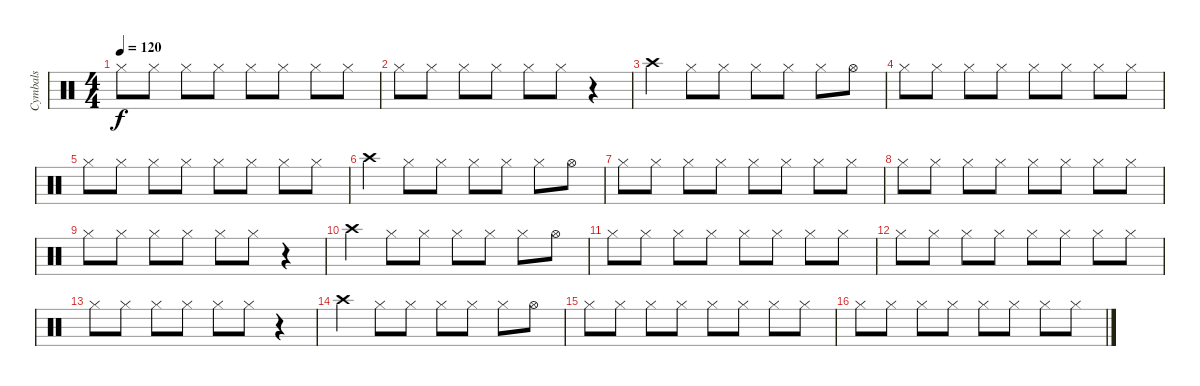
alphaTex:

\track ("Cymbals" "Cymbals") {instrument percussion}
\staff {score}
\articulation defaults
\ts (4 4)
\tempo 120
\clef neutral
\ks c "Hi-Hat (closed)".8{dy f} "Hi-Hat (closed)".8 "Hi-Hat (closed)".8 "Hi-Hat (closed)".8 "Hi-Hat (closed)".8 "Hi-Hat (closed)".8 "Hi-Hat (closed)".8 "Hi-Hat (closed)".8
|
"Hi-Hat (closed)".8 "Hi-Hat (closed)".8 "Hi-Hat (closed)".8 "Hi-Hat (closed)".8 "Hi-Hat (closed)".8 "Hi-Hat (closed)".8 r.4 |
"Crash high (hit)".4 "Hi-Hat (closed)".8 "Hi-Hat (closed)".8 "Hi-Hat (closed)".8 "Hi-Hat (closed)".8 "Hi-Hat (closed)".8 "Hi-Hat (open)".8 |
"Hi-Hat (closed)".8 "Hi-Hat (closed)".8 "Hi-Hat (closed)".8 "Hi-Hat (closed)".8 "Hi-Hat (closed)".8 "Hi-Hat (closed)".8 "Hi-Hat (closed)".8 "Hi-Hat (closed)".8 |
"Hi-Hat (closed)".8 "Hi-Hat (closed)".8 "Hi-Hat (closed)".8 "Hi-Hat (closed)".8 "Hi-Hat (closed)".8 "Hi-Hat (closed)".8 "Hi-Hat (closed)".8 "Hi-Hat (closed)".8 |
"Crash high (hit)".4 "Hi-Hat (closed)".8 "Hi-Hat (closed)".8 "Hi-Hat (closed)".8 "Hi-Hat (closed)".8 "Hi-Hat (closed)".8 "Hi-Hat (open)".8 |
"Hi-Hat (closed)".8 "Hi-Hat (closed)".8 "Hi-Hat (closed)".8 "Hi-Hat (closed)".8 "Hi-Hat (closed)".8 "Hi-Hat (closed)".8 "Hi-Hat (closed)".8 "Hi-Hat (closed)".8 |
"Hi-Hat (closed)".8 "Hi-Hat (closed)".8 "Hi-Hat (closed)".8 "Hi-Hat (closed)".8 "Hi-Hat (closed)".8 "Hi-Hat (closed)".8 "Hi-Hat (closed)".8 "Hi-Hat (closed)".8 |
"Hi-Hat (closed)".8 "Hi-Hat (closed)".8 "Hi-Hat (closed)".8 "Hi-Hat (closed)".8 "Hi-Hat (closed)".8 "Hi-Hat (closed)".8 r.4 |
"Crash high (hit)".4 "Hi-Hat (closed)".8 "Hi-Hat (closed)".8 "Hi-Hat (closed)".8 "Hi-Hat (closed)".8 "Hi-Hat (closed)".8 "Hi-Hat (open)".8 |
"Hi-Hat (closed)".8 "Hi-Hat (closed)".8 "Hi-Hat (closed)".8 "Hi-Hat (closed)".8 "Hi-Hat (closed)".8 "Hi-Hat (closed)".8 "Hi-Hat (closed)".8 "Hi-Hat (closed)".8 |
"Hi-Hat (closed)".8 "Hi-Hat (closed)".8 "Hi-Hat (closed)".8 "Hi-Hat (closed)".8 "Hi-Hat (closed)".8 "Hi-Hat (closed)".8 "Hi-Hat (closed)".8 "Hi-Hat (closed)".8 |
"Hi-Hat (closed)".8 "Hi-Hat (closed)".8 "Hi-Hat (closed)".8 "Hi-Hat (closed)".8 "Hi-Hat (closed)".8 "Hi-Hat (closed)".8 r.4 |
"Crash high (hit)".4 "Hi-Hat (closed)".8 "Hi-Hat (closed)".8 "Hi-Hat (closed)".8 "Hi-Hat (closed)".8 "Hi-Hat (closed)".8 "Hi-Hat (open)".8 |
"Hi-Hat (closed)".8 "Hi-Hat (closed)".8 "Hi-Hat (closed)".8 "Hi-Hat (closed)".8 "Hi-Hat (closed)".8 "Hi-Hat (closed)".8 "Hi-Hat (closed)".8 "Hi-Hat (closed)".8 |
"Hi-Hat (closed)".8 "Hi-Hat (closed)".8 "Hi-Hat (closed)".8 "Hi-Hat (closed)".8 "Hi-Hat (closed)".8 "Hi-Hat (closed)".8 "Hi-Hat (closed)".8 "Hi-Hat (closed)".8
